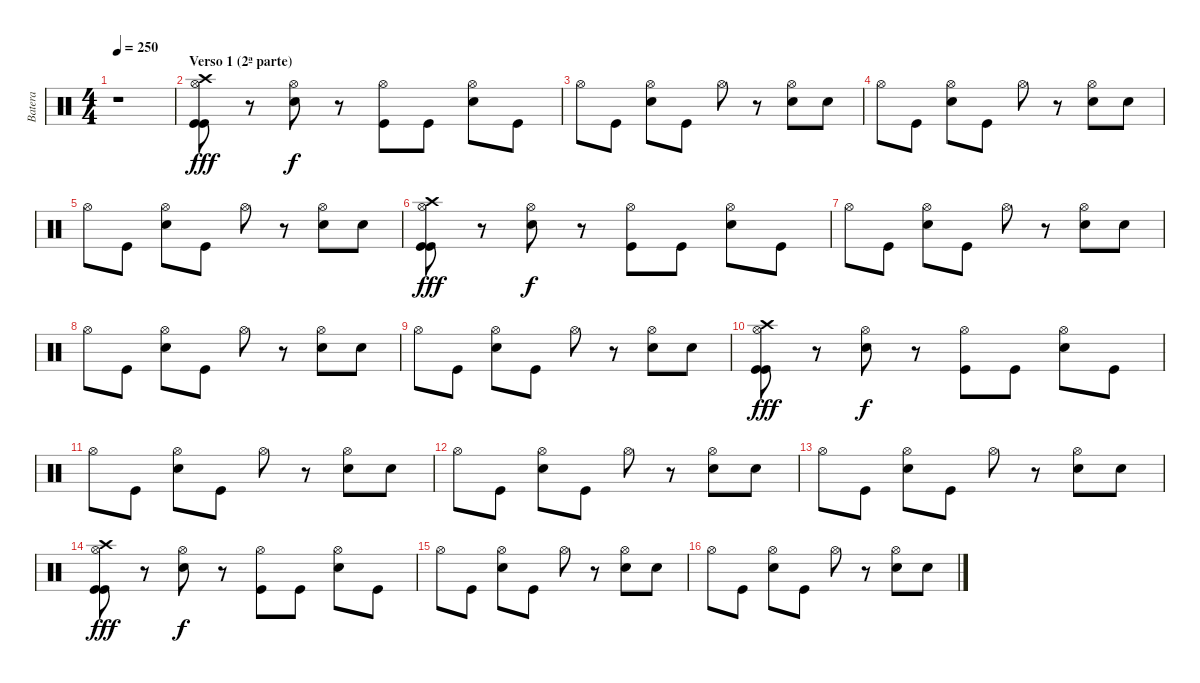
\track ("Batera" "Batera") {instrument percussion}
\staff {score}
\articulation defaults
\ts (4 4)
\tempo 250
\clef neutral
\ks c
r.1{dy fff} |
\section ("" "Verso 1 (2ª parte)")
("Hi-Hat (open)" "Crash high (hit)" "Kick (hit)" "Kick (hit)").8 r.8 ("Hi-Hat (open)" "Electric Snare (hit)").8{dy f} r.8 ("Hi-Hat (open)" "Kick (hit)").8 "Kick (hit)".8 ("Hi-Hat (open)" "Electric Snare (hit)").8 "Kick (hit)".8 |
"Hi-Hat (open)".8 "Kick (hit)".8 ("Hi-Hat (open)" "Electric Snare (hit)").8 "Kick (hit)".8 "Hi-Hat (open)".8 r.8 ("Hi-Hat (open)" "Electric Snare (hit)").8 "Electric Snare (hit)".8 |
"Hi-Hat (open)".8 "Kick (hit)".8 ("Hi-Hat (open)" "Electric Snare (hit)").8 "Kick (hit)".8 "Hi-Hat (open)".8 r.8 ("Hi-Hat (open)" "Electric Snare (hit)").8 "Electric Snare (hit)".8 |
"Hi-Hat (open)".8 "Kick (hit)".8 ("Hi-Hat (open)" "Electric Snare (hit)").8 "Kick (hit)".8 "Hi-Hat (open)".8 r.8 ("Hi-Hat (open)" "Electric Snare (hit)").8 "Electric Snare (hit)".8 |
("Hi-Hat (open)" "Crash high (hit)" "Kick (hit)" "Kick (hit)").8{dy fff} r.8 ("Hi-Hat (open)" "Electric Snare (hit)").8{dy f} r.8 ("Hi-Hat (open)" "Kick (hit)").8 "Kick (hit)".8 ("Hi-Hat (open)" "Electric Snare (hit)").8 "Kick (hit)".8 |
"Hi-Hat (open)".8 "Kick (hit)".8 ("Hi-Hat (open)" "Electric Snare (hit)").8 "Kick (hit)".8 "Hi-Hat (open)".8 r.8 ("Hi-Hat (open)" "Electric Snare (hit)").8 "Electric Snare (hit)".8 |
"Hi-Hat (open)".8 "Kick (hit)".8 ("Hi-Hat (open)" "Electric Snare (hit)").8 "Kick (hit)".8 "Hi-Hat (open)".8 r.8 ("Hi-Hat (open)" "Electric Snare (hit)").8 "Electric Snare (hit)".8 |
"Hi-Hat (open)".8 "Kick (hit)".8 ("Hi-Hat (open)" "Electric Snare (hit)").8 "Kick (hit)".8 "Hi-Hat (open)".8 r.8 ("Hi-Hat (open)" "Electric Snare (hit)").8 "Electric Snare (hit)".8 |
("Hi-Hat (open)" "Crash high (hit)" "Kick (hit)" "Kick (hit)").8{dy fff} r.8 ("Hi-Hat (open)" "Electric Snare (hit)").8{dy f} r.8 ("Hi-Hat (open)" "Kick (hit)").8 "Kick (hit)".8 ("Hi-Hat (open)" "Electric Snare (hit)").8 "Kick (hit)".8 |
"Hi-Hat (open)".8 "Kick (hit)".8 ("Hi-Hat (open)" "Electric Snare (hit)").8 "Kick (hit)".8 "Hi-Hat (open)".8 r.8 ("Hi-Hat (open)" "Electric Snare (hit)").8 "Electric Snare (hit)".8 |
"Hi-Hat (open)".8 "Kick (hit)".8 ("Hi-Hat (open)" "Electric Snare (hit)").8 "Kick (hit)".8 "Hi-Hat (open)".8 r.8 ("Hi-Hat (open)" "Electric Snare (hit)").8 "Electric Snare (hit)".8 |
"Hi-Hat (open)".8 "Kick (hit)".8 ("Hi-Hat (open)" "Electric Snare (hit)").8 "Kick (hit)".8 "Hi-Hat (open)".8 r.8 ("Hi-Hat (open)" "Electric Snare (hit)").8 "Electric Snare (hit)".8 |
("Hi-Hat (open)" "Crash high (hit)" "Kick (hit)" "Kick (hit)").8{dy fff} r.8 ("Hi-Hat (open)" "Electric Snare (hit)").8{dy f} r.8 ("Hi-Hat (open)" "Kick (hit)").8 "Kick (hit)".8 ("Hi-Hat (open)" "Electric Snare (hit)").8 "Kick (hit)".8 |
"Hi-Hat (open)".8 "Kick (hit)".8 ("Hi-Hat (open)" "Electric Snare (hit)").8 "Kick (hit)".8 "Hi-Hat (open)".8 r.8 ("Hi-Hat (open)" "Electric Snare (hit)").8 "Electric Snare (hit)".8 |
"Hi-Hat (open)".8 "Kick (hit)".8 ("Hi-Hat (open)" "Electric Snare (hit)").8 "Kick (hit)".8 "Hi-Hat (open)".8 r.8 ("Hi-Hat (open)" "Electric Snare (hit)").8 "Electric Snare (hit)".8
